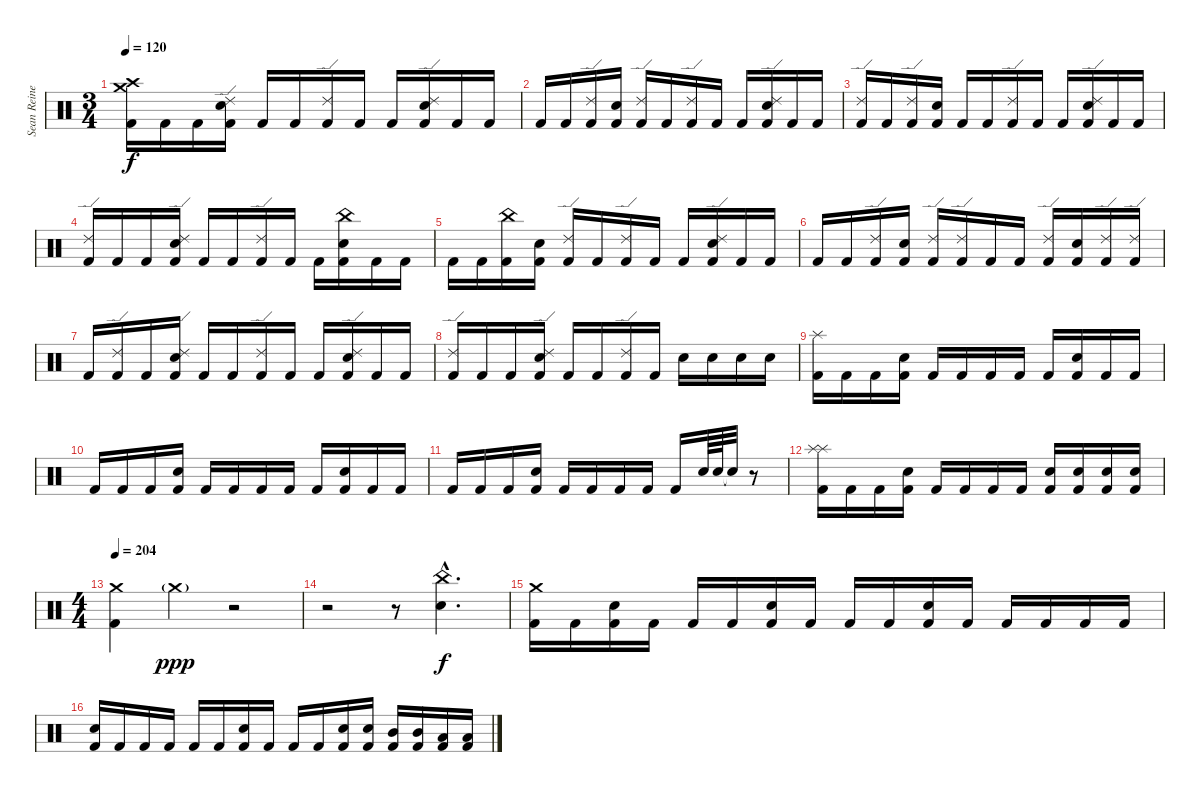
\track ("Sean Reinert" "Sean Reine") {instrument percussion}
\staff {score}
\articulation defaults
\ts (3 4)
\tempo 120
\clef neutral
\ks c
("Crash medium (hit)" "Crash high (hit)" "Kick (hit) 2").16{dy f} "Kick (hit) 2".16 "Kick (hit) 2".16 ("Ride (edge) 2" "Snare (hit) 2" "Kick (hit) 2").16 "Kick (hit) 2".16 "Kick (hit) 2".16 ("Ride (edge) 2" "Kick (hit) 2").16 "Kick (hit) 2".16 "Kick (hit) 2".16 ("Ride (edge) 2" "Snare (hit) 2" "Kick (hit) 2").16 "Kick (hit) 2".16 "Kick (hit) 2".16 |
"Kick (hit) 2".16 "Kick (hit) 2".16 ("Ride (edge) 2" "Kick (hit) 2").16 ("Snare (hit) 2" "Kick (hit) 2").16 ("Ride (edge) 2" "Kick (hit) 2").16 "Kick (hit) 2".16 ("Ride (edge) 2" "Kick (hit) 2").16 "Kick (hit) 2".16 "Kick (hit) 2".16 ("Ride (edge) 2" "Snare (hit) 2" "Kick (hit) 2").16 "Kick (hit) 2".16 "Kick (hit) 2".16 |
("Ride (edge) 2" "Kick (hit) 2").16 "Kick (hit) 2".16 ("Ride (edge) 2" "Kick (hit) 2").16 ("Snare (hit) 2" "Kick (hit) 2").16 "Kick (hit) 2".16 "Kick (hit) 2".16 ("Ride (edge) 2" "Kick (hit) 2").16 "Kick (hit) 2".16 "Kick (hit) 2".16 ("Ride (edge) 2" "Snare (hit) 2" "Kick (hit) 2").16 "Kick (hit) 2".16 "Kick (hit) 2".16 |
("Ride (edge) 2" "Kick (hit) 2").16 "Kick (hit) 2".16 "Kick (hit) 2".16 ("Ride (edge) 2" "Snare (hit) 2" "Kick (hit) 2").16 "Kick (hit) 2".16 "Kick (hit) 2".16 ("Ride (edge) 2" "Kick (hit) 2").16 "Kick (hit) 2".16 "Kick (hit) 2".16 ("China (hit)" "Snare (hit) 2" "Kick (hit) 2").16 "Kick (hit) 2".16 "Kick (hit) 2".16 |
"Kick (hit) 2".16 "Kick (hit) 2".16 ("China (hit)" "Kick (hit) 2").16 ("Snare (hit) 2" "Kick (hit) 2").16 ("Ride (edge) 2" "Kick (hit) 2").16 "Kick (hit) 2".16 ("Ride (edge) 2" "Kick (hit) 2").16 "Kick (hit) 2".16 "Kick (hit) 2".16 ("Ride (edge) 2" "Snare (hit) 2" "Kick (hit) 2").16 "Kick (hit) 2".16 "Kick (hit) 2".16 |
"Kick (hit) 2".16 "Kick (hit) 2".16 ("Ride (edge) 2" "Kick (hit) 2").16 ("Snare (hit) 2" "Kick (hit) 2").16 ("Ride (edge) 2" "Kick (hit) 2").16 ("Ride (edge) 2" "Kick (hit) 2").16 "Kick (hit) 2".16 "Kick (hit) 2".16 ("Ride (edge) 2" "Kick (hit) 2").16 ("Snare (hit) 2" "Kick (hit) 2").16 ("Ride (edge) 2" "Kick (hit) 2").16 ("Ride (edge) 2" "Kick (hit) 2").16 |
"Kick (hit) 2".16 ("Ride (edge) 2" "Kick (hit) 2").16 "Kick (hit) 2".16 ("Ride (edge) 2" "Snare (hit) 2" "Kick (hit) 2").16 "Kick (hit) 2".16 "Kick (hit) 2".16 ("Ride (edge) 2" "Kick (hit) 2").16 "Kick (hit) 2".16 "Kick (hit) 2".16 ("Ride (edge) 2" "Snare (hit) 2" "Kick (hit) 2").16 "Kick (hit) 2".16 "Kick (hit) 2".16 |
("Ride (edge) 2" "Kick (hit) 2").16 "Kick (hit) 2".16 "Kick (hit) 2".16 ("Ride (edge) 2" "Snare (hit) 2" "Kick (hit) 2").16 "Kick (hit) 2".16 "Kick (hit) 2".16 ("Ride (edge) 2" "Kick (hit) 2").16 "Kick (hit) 2".16 "Snare (hit) 2".16 "Snare (hit) 2".16 "Snare (hit) 2".16 "Snare (hit) 2".16 |
("Splash (hit)" "Kick (hit) 2").16 "Kick (hit) 2".16 "Kick (hit) 2".16 ("Snare (hit) 2" "Kick (hit) 2").16 "Kick (hit) 2".16 "Kick (hit) 2".16 "Kick (hit) 2".16 "Kick (hit) 2".16 "Kick (hit) 2".16 ("Snare (hit) 2" "Kick (hit) 2").16 "Kick (hit) 2".16 "Kick (hit) 2".16 |
"Kick (hit) 2".16 "Kick (hit) 2".16 "Kick (hit) 2".16 ("Snare (hit) 2" "Kick (hit) 2").16 "Kick (hit) 2".16 "Kick (hit) 2".16 "Kick (hit) 2".16 "Kick (hit) 2".16 "Kick (hit) 2".16 ("Snare (hit) 2" "Kick (hit) 2").16 "Kick (hit) 2".16 "Kick (hit) 2".16 |
"Kick (hit) 2".16 "Kick (hit) 2".16 "Kick (hit) 2".16 ("Snare (hit) 2" "Kick (hit) 2").16 "Kick (hit) 2".16 "Kick (hit) 2".16 "Kick (hit) 2".16 "Kick (hit) 2".16 "Kick (hit) 2".16 "Snare (hit) 2".64 "Snare (hit) 2".64 "Snare (hit)"{t}.32 r.8 |
("Splash (hit)" "Splash (hit)" "Kick (hit) 2").16 "Kick (hit) 2".16 "Kick (hit) 2".16 ("Snare (hit) 2" "Kick (hit) 2").16 "Kick (hit) 2".16 "Kick (hit) 2".16 "Kick (hit) 2".16 "Kick (hit) 2".16 ("Snare (hit) 2" "Kick (hit) 2").16 ("Snare (hit) 2" "Kick (hit) 2").16 ("Snare (hit) 2" "Kick (hit) 2").16 ("Snare (hit) 2" "Kick (hit) 2").16 |
\ts (4 4)
\tempo 204
("Crash medium (hit)" "Kick (hit) 2").4 "Crash medium (hit)"{g}.4{dy ppp} r.2 |
r.2 r.8 ("China (hit)"{hac} "Snare (hit) 2"{hac}).4{d dy f} |
("Crash medium (hit)" "Kick (hit) 2").16 "Kick (hit) 2".16 ("Snare (hit) 2" "Kick (hit) 2").16 "Kick (hit) 2".16 "Kick (hit) 2".16 "Kick (hit) 2".16 ("Snare (hit) 2" "Kick (hit) 2").16 "Kick (hit) 2".16 "Kick (hit) 2".16 "Kick (hit) 2".16 ("Snare (hit) 2" "Kick (hit) 2").16 "Kick (hit) 2".16 "Kick (hit) 2".16 "Kick (hit) 2".16 "Kick (hit) 2".16 "Kick (hit) 2".16 |
("Snare (hit) 2" "Kick (hit) 2").16 "Kick (hit) 2".16 "Kick (hit) 2".16 "Kick (hit) 2".16 "Kick (hit) 2".16 "Kick (hit) 2".16 ("Snare (hit) 2" "Kick (hit) 2").16 "Kick (hit) 2".16 "Kick (hit) 2".16 "Kick (hit) 2".16 ("Snare (hit) 2" "Kick (hit) 2").16 ("Snare (hit) 2" "Kick (hit) 2").16 ("Mid Tom (hit)" "Kick (hit) 2").16 ("Mid Tom (hit)" "Kick (hit) 2").16 ("Low Tom (hit)" "Kick (hit) 2").16 ("Low Tom (hit)" "Kick (hit) 2").16
